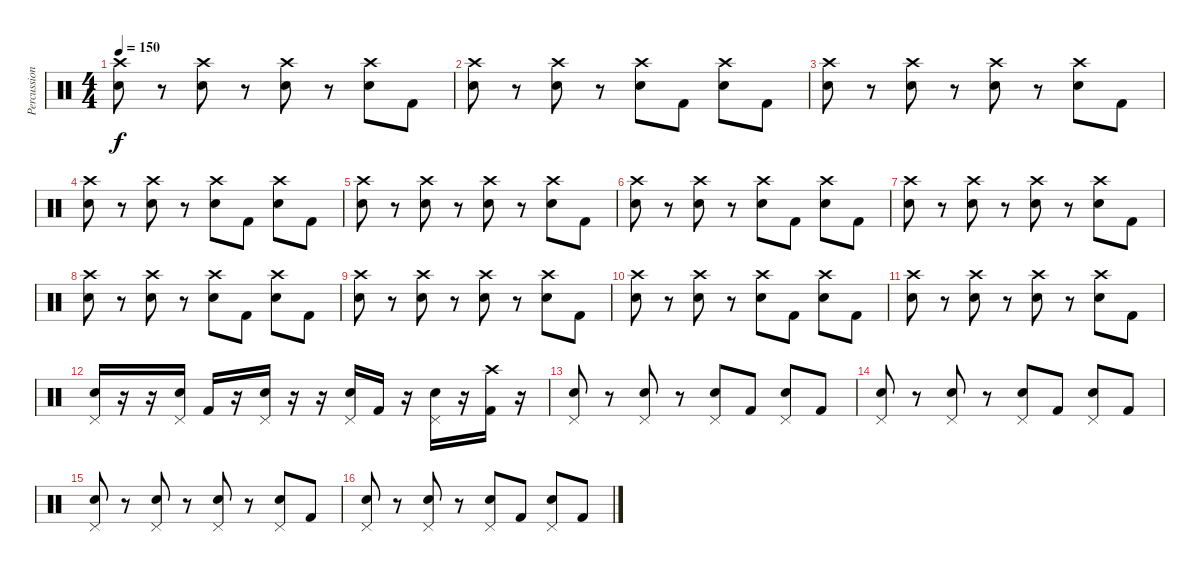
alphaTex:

\track ("Percussion" "Percussion") {instrument percussion}
\staff {score}
\articulation defaults
\ts (4 4)
\tempo 150
\clef neutral
\ks c
("Crash high (hit)" "Electric Snare (hit)").8{dy f} r.8 ("Crash high (hit)" "Electric Snare (hit)").8 r.8 ("Crash high (hit)" "Electric Snare (hit)").8 r.8 ("Crash high (hit)" "Electric Snare (hit)").8 "Kick (hit) 2".8 |
("Crash high (hit)" "Electric Snare (hit)").8 r.8 ("Crash high (hit)" "Electric Snare (hit)").8 r.8 ("Crash high (hit)" "Electric Snare (hit)").8 "Kick (hit) 2".8 ("Crash high (hit)" "Electric Snare (hit)").8 "Kick (hit) 2".8 |
("Crash high (hit)" "Electric Snare (hit)").8 r.8 ("Crash high (hit)" "Electric Snare (hit)").8 r.8 ("Crash high (hit)" "Electric Snare (hit)").8 r.8 ("Crash high (hit)" "Electric Snare (hit)").8 "Kick (hit) 2".8 |
("Crash high (hit)" "Electric Snare (hit)").8 r.8 ("Crash high (hit)" "Electric Snare (hit)").8 r.8 ("Crash high (hit)" "Electric Snare (hit)").8 "Kick (hit) 2".8 ("Crash high (hit)" "Electric Snare (hit)").8 "Kick (hit) 2".8 |
("Crash high (hit)" "Electric Snare (hit)").8 r.8 ("Crash high (hit)" "Electric Snare (hit)").8 r.8 ("Crash high (hit)" "Electric Snare (hit)").8 r.8 ("Crash high (hit)" "Electric Snare (hit)").8 "Kick (hit) 2".8 |
("Crash high (hit)" "Electric Snare (hit)").8 r.8 ("Crash high (hit)" "Electric Snare (hit)").8 r.8 ("Crash high (hit)" "Electric Snare (hit)").8 "Kick (hit) 2".8 ("Crash high (hit)" "Electric Snare (hit)").8 "Kick (hit) 2".8 |
("Crash high (hit)" "Electric Snare (hit)").8 r.8 ("Crash high (hit)" "Electric Snare (hit)").8 r.8 ("Crash high (hit)" "Electric Snare (hit)").8 r.8 ("Crash high (hit)" "Electric Snare (hit)").8 "Kick (hit) 2".8 |
("Crash high (hit)" "Electric Snare (hit)").8 r.8 ("Crash high (hit)" "Electric Snare (hit)").8 r.8 ("Crash high (hit)" "Electric Snare (hit)").8 "Kick (hit) 2".8 ("Crash high (hit)" "Electric Snare (hit)").8 "Kick (hit) 2".8 |
("Crash high (hit)" "Electric Snare (hit)").8 r.8 ("Crash high (hit)" "Electric Snare (hit)").8 r.8 ("Crash high (hit)" "Electric Snare (hit)").8 r.8 ("Crash high (hit)" "Electric Snare (hit)").8 "Kick (hit) 2".8 |
("Crash high (hit)" "Electric Snare (hit)").8 r.8 ("Crash high (hit)" "Electric Snare (hit)").8 r.8 ("Crash high (hit)" "Electric Snare (hit)").8 "Kick (hit) 2".8 ("Crash high (hit)" "Electric Snare (hit)").8 "Kick (hit) 2".8 |
("Crash high (hit)" "Electric Snare (hit)").8 r.8 ("Crash high (hit)" "Electric Snare (hit)").8 r.8 ("Crash high (hit)" "Electric Snare (hit)").8 r.8 ("Crash high (hit)" "Electric Snare (hit)").8 "Kick (hit) 2".8 |
("Pedal Hi-Hat (hit)" "Electric Snare (hit)").16 r.16 r.16 ("Pedal Hi-Hat (hit)" "Electric Snare (hit)").16 "Kick (hit) 2".16 r.16 ("Pedal Hi-Hat (hit)" "Electric Snare (hit)").16 r.16 r.16 ("Pedal Hi-Hat (hit)" "Electric Snare (hit)").16 "Kick (hit) 2".16 r.16 ("Pedal Hi-Hat (hit)" "Electric Snare (hit)").16 r.16 ("Crash high (hit)" "Kick (hit) 2").16 r.16 |
("Pedal Hi-Hat (hit)" "Electric Snare (hit)").8 r.8 ("Pedal Hi-Hat (hit)" "Electric Snare (hit)").8 r.8 ("Pedal Hi-Hat (hit)" "Electric Snare (hit)").8 "Kick (hit) 2".8 ("Pedal Hi-Hat (hit)" "Electric Snare (hit)").8 "Kick (hit) 2".8 |
("Pedal Hi-Hat (hit)" "Electric Snare (hit)").8 r.8 ("Pedal Hi-Hat (hit)" "Electric Snare (hit)").8 r.8 ("Pedal Hi-Hat (hit)" "Electric Snare (hit)").8 "Kick (hit) 2".8 ("Pedal Hi-Hat (hit)" "Electric Snare (hit)").8 "Kick (hit) 2".8 |
("Pedal Hi-Hat (hit)" "Electric Snare (hit)").8 r.8 ("Pedal Hi-Hat (hit)" "Electric Snare (hit)").8 r.8 ("Pedal Hi-Hat (hit)" "Electric Snare (hit)").8 r.8 ("Pedal Hi-Hat (hit)" "Electric Snare (hit)").8 "Kick (hit) 2".8 |
("Pedal Hi-Hat (hit)" "Electric Snare (hit)").8 r.8 ("Pedal Hi-Hat (hit)" "Electric Snare (hit)").8 r.8 ("Pedal Hi-Hat (hit)" "Electric Snare (hit)").8 "Kick (hit) 2".8 ("Pedal Hi-Hat (hit)" "Electric Snare (hit)").8 "Kick (hit) 2".8
